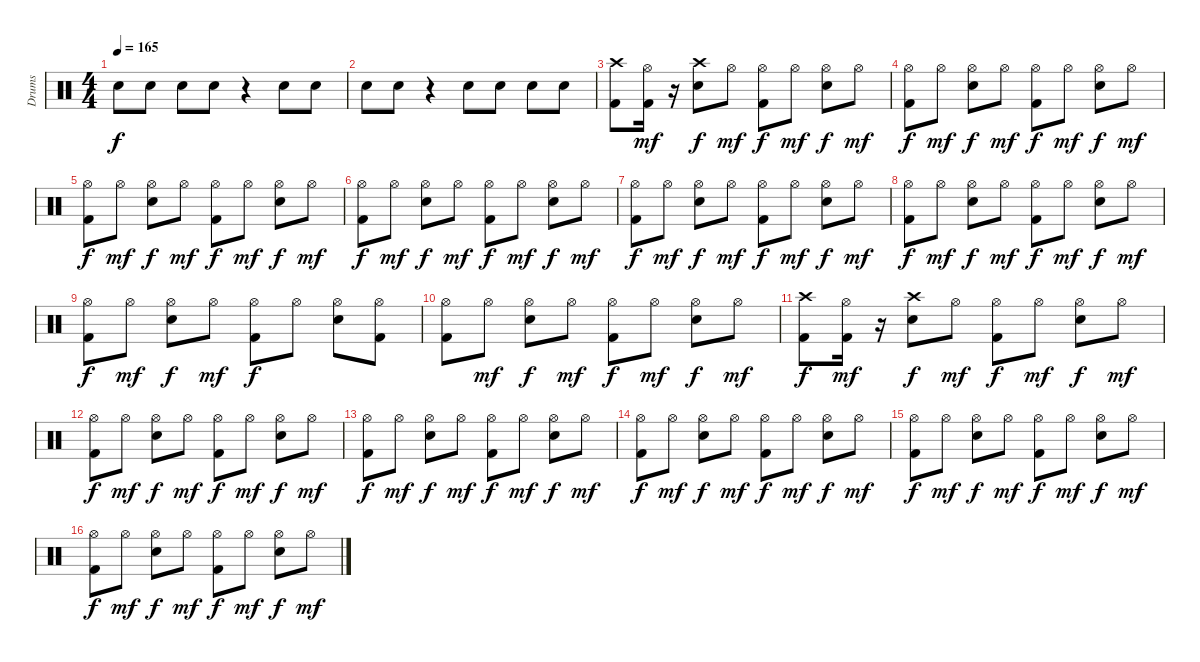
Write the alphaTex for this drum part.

\track ("Drums" "Drums") {instrument percussion}
\staff {score}
\articulation defaults
\ts (4 4)
\tempo 165
\clef neutral
\ks c "Electric Snare (hit)".8{dy f} "Electric Snare (hit)".8 "Electric Snare (hit)".8 "Electric Snare (hit)".8
r.4 "Electric Snare (hit)".8 "Electric Snare (hit)".8 |
"Electric Snare (hit)".8 "Electric Snare (hit)".8 r.4 "Electric Snare (hit)".8 "Electric Snare (hit)".8 "Electric Snare (hit)".8 "Electric Snare (hit)".8 |
("Crash high (hit)" "Kick (hit) 2").8 ("Hi-Hat (open)" "Kick (hit) 2").16{dy mf} r.16 ("Crash high (hit)" "Electric Snare (hit)").8{dy f} "Hi-Hat (open)".8{dy mf} ("Hi-Hat (open)" "Kick (hit) 2").8{dy f} "Hi-Hat (open)".8{dy mf} ("Hi-Hat (open)" "Electric Snare (hit)").8{dy f} "Hi-Hat (open)".8{dy mf} |
("Hi-Hat (open)" "Kick (hit) 2").8{dy f} "Hi-Hat (open)".8{dy mf} ("Hi-Hat (open)" "Electric Snare (hit)").8{dy f} "Hi-Hat (open)".8{dy mf} ("Hi-Hat (open)" "Kick (hit) 2").8{dy f} "Hi-Hat (open)".8{dy mf} ("Hi-Hat (open)" "Electric Snare (hit)").8{dy f} "Hi-Hat (open)".8{dy mf} |
("Hi-Hat (open)" "Kick (hit) 2").8{dy f} "Hi-Hat (open)".8{dy mf} ("Hi-Hat (open)" "Electric Snare (hit)").8{dy f} "Hi-Hat (open)".8{dy mf} ("Hi-Hat (open)" "Kick (hit) 2").8{dy f} "Hi-Hat (open)".8{dy mf} ("Hi-Hat (open)" "Electric Snare (hit)").8{dy f} "Hi-Hat (open)".8{dy mf} |
("Hi-Hat (open)" "Kick (hit) 2").8{dy f} "Hi-Hat (open)".8{dy mf} ("Hi-Hat (open)" "Electric Snare (hit)").8{dy f} "Hi-Hat (open)".8{dy mf} ("Hi-Hat (open)" "Kick (hit) 2").8{dy f} "Hi-Hat (open)".8{dy mf} ("Hi-Hat (open)" "Electric Snare (hit)").8{dy f} "Hi-Hat (open)".8{dy mf} |
("Hi-Hat (open)" "Kick (hit) 2").8{dy f} "Hi-Hat (open)".8{dy mf} ("Hi-Hat (open)" "Electric Snare (hit)").8{dy f} "Hi-Hat (open)".8{dy mf} ("Hi-Hat (open)" "Kick (hit) 2").8{dy f} "Hi-Hat (open)".8{dy mf} ("Hi-Hat (open)" "Electric Snare (hit)").8{dy f} "Hi-Hat (open)".8{dy mf} |
("Hi-Hat (open)" "Kick (hit) 2").8{dy f} "Hi-Hat (open)".8{dy mf} ("Hi-Hat (open)" "Electric Snare (hit)").8{dy f} "Hi-Hat (open)".8{dy mf} ("Hi-Hat (open)" "Kick (hit) 2").8{dy f} "Hi-Hat (open)".8{dy mf} ("Hi-Hat (open)" "Electric Snare (hit)").8{dy f} "Hi-Hat (open)".8{dy mf} |
("Hi-Hat (open)" "Kick (hit) 2").8{dy f} "Hi-Hat (open)".8{dy mf} ("Hi-Hat (open)" "Electric Snare (hit)").8{dy f} "Hi-Hat (open)".8{dy mf} ("Hi-Hat (open)" "Kick (hit) 2").8{dy f} "Hi-Hat (open)".8 ("Hi-Hat (open)" "Electric Snare (hit)").8 ("Hi-Hat (open)" "Kick (hit) 2").8 |
("Hi-Hat (open)" "Kick (hit) 2").8 "Hi-Hat (open)".8{dy mf} ("Hi-Hat (open)" "Electric Snare (hit)").8{dy f} "Hi-Hat (open)".8{dy mf} ("Hi-Hat (open)" "Kick (hit) 2").8{dy f} "Hi-Hat (open)".8{dy mf} ("Hi-Hat (open)" "Electric Snare (hit)").8{dy f} "Hi-Hat (open)".8{dy mf} |
("Crash high (hit)" "Kick (hit) 2").8{dy f} ("Hi-Hat (open)" "Kick (hit) 2").16{dy mf} r.16 ("Crash high (hit)" "Electric Snare (hit)").8{dy f} "Hi-Hat (open)".8{dy mf} ("Hi-Hat (open)" "Kick (hit) 2").8{dy f} "Hi-Hat (open)".8{dy mf} ("Hi-Hat (open)" "Electric Snare (hit)").8{dy f} "Hi-Hat (open)".8{dy mf} |
("Hi-Hat (open)" "Kick (hit) 2").8{dy f} "Hi-Hat (open)".8{dy mf} ("Hi-Hat (open)" "Electric Snare (hit)").8{dy f} "Hi-Hat (open)".8{dy mf} ("Hi-Hat (open)" "Kick (hit) 2").8{dy f} "Hi-Hat (open)".8{dy mf} ("Hi-Hat (open)" "Electric Snare (hit)").8{dy f} "Hi-Hat (open)".8{dy mf} |
("Hi-Hat (open)" "Kick (hit) 2").8{dy f} "Hi-Hat (open)".8{dy mf} ("Hi-Hat (open)" "Electric Snare (hit)").8{dy f} "Hi-Hat (open)".8{dy mf} ("Hi-Hat (open)" "Kick (hit) 2").8{dy f} "Hi-Hat (open)".8{dy mf} ("Hi-Hat (open)" "Electric Snare (hit)").8{dy f} "Hi-Hat (open)".8{dy mf} |
("Hi-Hat (open)" "Kick (hit) 2").8{dy f} "Hi-Hat (open)".8{dy mf} ("Hi-Hat (open)" "Electric Snare (hit)").8{dy f} "Hi-Hat (open)".8{dy mf} ("Hi-Hat (open)" "Kick (hit) 2").8{dy f} "Hi-Hat (open)".8{dy mf} ("Hi-Hat (open)" "Electric Snare (hit)").8{dy f} "Hi-Hat (open)".8{dy mf} |
("Hi-Hat (open)" "Kick (hit) 2").8{dy f} "Hi-Hat (open)".8{dy mf} ("Hi-Hat (open)" "Electric Snare (hit)").8{dy f} "Hi-Hat (open)".8{dy mf} ("Hi-Hat (open)" "Kick (hit) 2").8{dy f} "Hi-Hat (open)".8{dy mf} ("Hi-Hat (open)" "Electric Snare (hit)").8{dy f} "Hi-Hat (open)".8{dy mf} |
("Hi-Hat (open)" "Kick (hit) 2").8{dy f} "Hi-Hat (open)".8{dy mf} ("Hi-Hat (open)" "Electric Snare (hit)").8{dy f} "Hi-Hat (open)".8{dy mf} ("Hi-Hat (open)" "Kick (hit) 2").8{dy f} "Hi-Hat (open)".8{dy mf} ("Hi-Hat (open)" "Electric Snare (hit)").8{dy f} "Hi-Hat (open)".8{dy mf}
